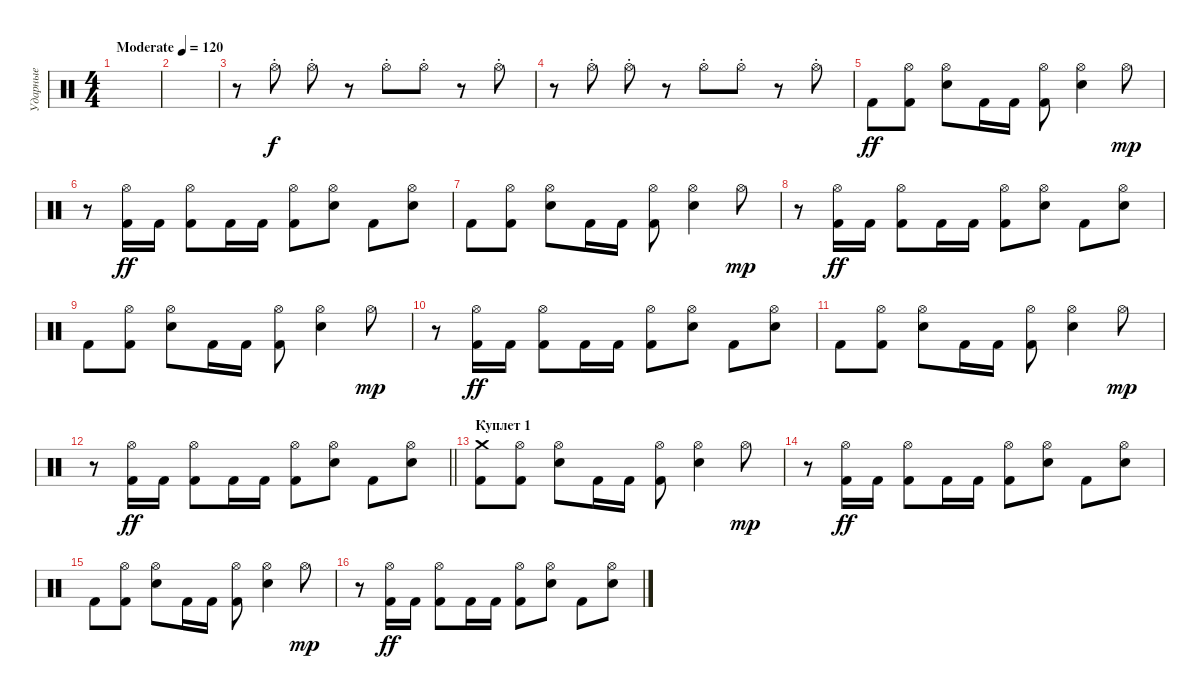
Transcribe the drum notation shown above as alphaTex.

\track ("Ударные" "Ударные") {instrument percussion}
\staff {score}
\articulation defaults
\ts (4 4)
\tempo (120 "Moderate")
\clef neutral
\ks c
|
|
r.8 "Hi-Hat (open)"{st}.8 "Hi-Hat (open)"{st}.8 r.8 "Hi-Hat (open)"{st}.8 "Hi-Hat (open)"{st}.8 r.8 "Hi-Hat (open)"{st}.8 |
r.8 "Hi-Hat (open)"{st}.8 "Hi-Hat (open)"{st}.8 r.8 "Hi-Hat (open)"{st}.8 "Hi-Hat (open)"{st}.8 r.8 "Hi-Hat (open)"{st}.8 |
"Kick (hit) 2".8{dy ff} ("Hi-Hat (open)" "Kick (hit) 2").8 ("Hi-Hat (open)" "Electric Snare (hit)").8 "Kick (hit) 2".16 "Kick (hit) 2".16 ("Hi-Hat (open)" "Kick (hit) 2").8 ("Hi-Hat (open)" "Electric Snare (hit)").4 "Hi-Hat (open)".8{dy mp} |
r.8 ("Hi-Hat (open)" "Kick (hit) 2").16{dy ff} "Kick (hit) 2".16 ("Hi-Hat (open)" "Kick (hit) 2").8 "Kick (hit) 2".16 "Kick (hit) 2".16 ("Hi-Hat (open)" "Kick (hit) 2").8 ("Hi-Hat (open)" "Electric Snare (hit)").8 "Kick (hit) 2".8 ("Hi-Hat (open)" "Electric Snare (hit)").8 |
"Kick (hit) 2".8 ("Hi-Hat (open)" "Kick (hit) 2").8 ("Hi-Hat (open)" "Electric Snare (hit)").8 "Kick (hit) 2".16 "Kick (hit) 2".16 ("Hi-Hat (open)" "Kick (hit) 2").8 ("Hi-Hat (open)" "Electric Snare (hit)").4 "Hi-Hat (open)".8{dy mp} |
r.8 ("Hi-Hat (open)" "Kick (hit) 2").16{dy ff} "Kick (hit) 2".16 ("Hi-Hat (open)" "Kick (hit) 2").8 "Kick (hit) 2".16 "Kick (hit) 2".16 ("Hi-Hat (open)" "Kick (hit) 2").8 ("Hi-Hat (open)" "Electric Snare (hit)").8 "Kick (hit) 2".8 ("Hi-Hat (open)" "Electric Snare (hit)").8 |
"Kick (hit) 2".8 ("Hi-Hat (open)" "Kick (hit) 2").8 ("Hi-Hat (open)" "Electric Snare (hit)").8 "Kick (hit) 2".16 "Kick (hit) 2".16 ("Hi-Hat (open)" "Kick (hit) 2").8 ("Hi-Hat (open)" "Electric Snare (hit)").4 "Hi-Hat (open)".8{dy mp} |
r.8 ("Hi-Hat (open)" "Kick (hit) 2").16{dy ff} "Kick (hit) 2".16 ("Hi-Hat (open)" "Kick (hit) 2").8 "Kick (hit) 2".16 "Kick (hit) 2".16 ("Hi-Hat (open)" "Kick (hit) 2").8 ("Hi-Hat (open)" "Electric Snare (hit)").8 "Kick (hit) 2".8 ("Hi-Hat (open)" "Electric Snare (hit)").8 |
"Kick (hit) 2".8 ("Hi-Hat (open)" "Kick (hit) 2").8 ("Hi-Hat (open)" "Electric Snare (hit)").8 "Kick (hit) 2".16 "Kick (hit) 2".16 ("Hi-Hat (open)" "Kick (hit) 2").8 ("Hi-Hat (open)" "Electric Snare (hit)").4 "Hi-Hat (open)".8{dy mp} |
\barLineRight lightlight
r.8 ("Hi-Hat (open)" "Kick (hit) 2").16{dy ff} "Kick (hit) 2".16 ("Hi-Hat (open)" "Kick (hit) 2").8 "Kick (hit) 2".16 "Kick (hit) 2".16 ("Hi-Hat (open)" "Kick (hit) 2").8 ("Hi-Hat (open)" "Electric Snare (hit)").8 "Kick (hit) 2".8 ("Hi-Hat (open)" "Electric Snare (hit)").8 |
\section ("" "Куплет 1")
("Crash medium (hit)" "Kick (hit) 2").8 ("Hi-Hat (open)" "Kick (hit) 2").8 ("Hi-Hat (open)" "Electric Snare (hit)").8 "Kick (hit) 2".16 "Kick (hit) 2".16 ("Hi-Hat (open)" "Kick (hit) 2").8 ("Hi-Hat (open)" "Electric Snare (hit)").4 "Hi-Hat (open)".8{dy mp} |
r.8 ("Hi-Hat (open)" "Kick (hit) 2").16{dy ff} "Kick (hit) 2".16 ("Hi-Hat (open)" "Kick (hit) 2").8 "Kick (hit) 2".16 "Kick (hit) 2".16 ("Hi-Hat (open)" "Kick (hit) 2").8 ("Hi-Hat (open)" "Electric Snare (hit)").8 "Kick (hit) 2".8 ("Hi-Hat (open)" "Electric Snare (hit)").8 |
"Kick (hit) 2".8 ("Hi-Hat (open)" "Kick (hit) 2").8 ("Hi-Hat (open)" "Electric Snare (hit)").8 "Kick (hit) 2".16 "Kick (hit) 2".16 ("Hi-Hat (open)" "Kick (hit) 2").8 ("Hi-Hat (open)" "Electric Snare (hit)").4 "Hi-Hat (open)".8{dy mp} |
r.8 ("Hi-Hat (open)" "Kick (hit) 2").16{dy ff} "Kick (hit) 2".16 ("Hi-Hat (open)" "Kick (hit) 2").8 "Kick (hit) 2".16 "Kick (hit) 2".16 ("Hi-Hat (open)" "Kick (hit) 2").8 ("Hi-Hat (open)" "Electric Snare (hit)").8 "Kick (hit) 2".8 ("Hi-Hat (open)" "Electric Snare (hit)").8
